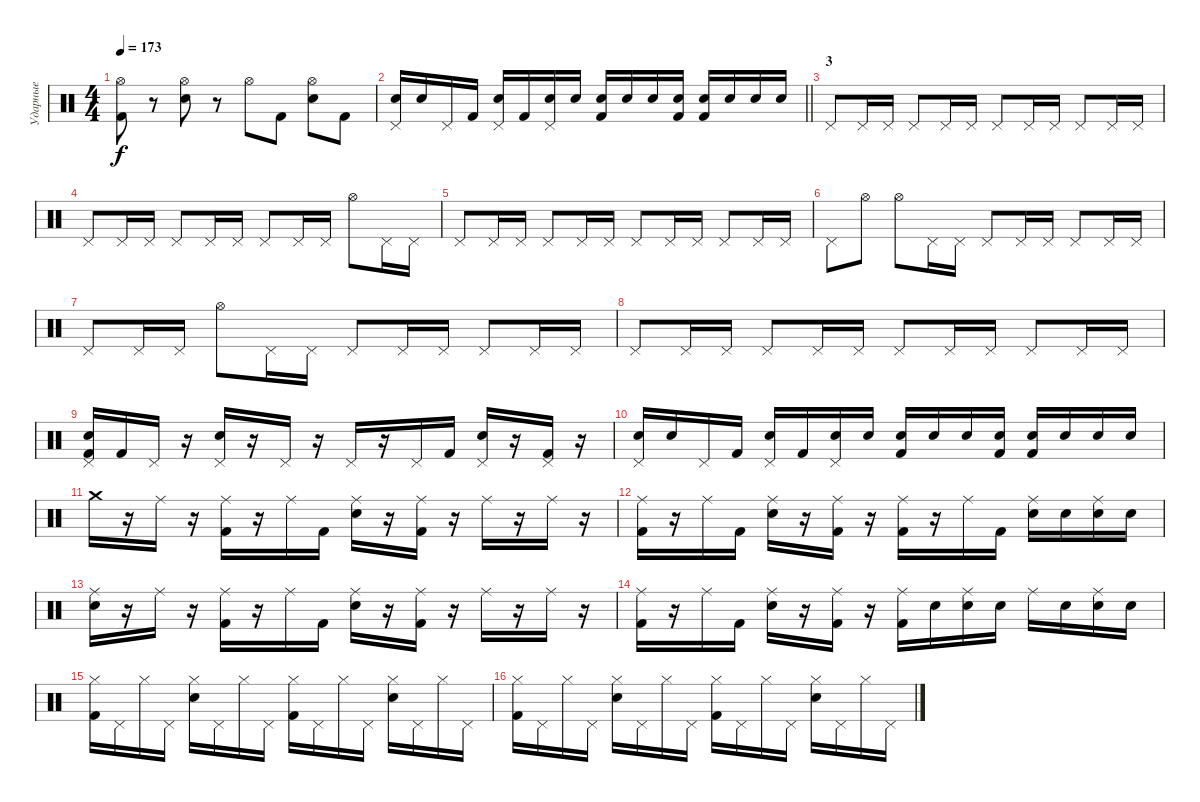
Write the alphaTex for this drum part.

\track ("Ударные" "Ударные") {instrument percussion}
\staff {score}
\articulation defaults
\ts (4 4)
\tempo 173
\clef neutral
\ks c
("Hi-Hat (open)" "Kick (hit) 2").8{dy f} r.8 ("Hi-Hat (open)" "Snare (hit) 2").8 r.8 "Hi-Hat (open)".8 "Kick (hit) 2".8 ("Hi-Hat (open)" "Snare (hit) 2").8 "Kick (hit) 2".8 |
\barLineRight lightlight
("Pedal Hi-Hat (hit)" "Snare (hit) 2").16 "Snare (hit) 2".16 "Pedal Hi-Hat (hit)".16 "Kick (hit) 2".16 ("Pedal Hi-Hat (hit)" "Snare (hit) 2").16 "Kick (hit) 2".16 ("Pedal Hi-Hat (hit)" "Snare (hit) 2").16 "Snare (hit) 2".16 ("Snare (hit) 2" "Kick (hit) 2").16 "Snare (hit) 2".16 "Snare (hit) 2".16 ("Snare (hit) 2" "Kick (hit) 2").16 ("Snare (hit) 2" "Kick (hit) 2").16 "Snare (hit) 2".16 "Snare (hit) 2".16 "Snare (hit) 2".16 |
\section ("" "3")
"Pedal Hi-Hat (hit)".8 "Pedal Hi-Hat (hit)".16 "Pedal Hi-Hat (hit)".16 "Pedal Hi-Hat (hit)".8 "Pedal Hi-Hat (hit)".16 "Pedal Hi-Hat (hit)".16 "Pedal Hi-Hat (hit)".8 "Pedal Hi-Hat (hit)".16 "Pedal Hi-Hat (hit)".16 "Pedal Hi-Hat (hit)".8 "Pedal Hi-Hat (hit)".16 "Pedal Hi-Hat (hit)".16 |
"Pedal Hi-Hat (hit)".8 "Pedal Hi-Hat (hit)".16 "Pedal Hi-Hat (hit)".16 "Pedal Hi-Hat (hit)".8 "Pedal Hi-Hat (hit)".16 "Pedal Hi-Hat (hit)".16 "Pedal Hi-Hat (hit)".8 "Pedal Hi-Hat (hit)".16 "Pedal Hi-Hat (hit)".16 "Hi-Hat (open)".8 "Pedal Hi-Hat (hit)".16 "Pedal Hi-Hat (hit)".16 |
"Pedal Hi-Hat (hit)".8 "Pedal Hi-Hat (hit)".16 "Pedal Hi-Hat (hit)".16 "Pedal Hi-Hat (hit)".8 "Pedal Hi-Hat (hit)".16 "Pedal Hi-Hat (hit)".16 "Pedal Hi-Hat (hit)".8 "Pedal Hi-Hat (hit)".16 "Pedal Hi-Hat (hit)".16 "Pedal Hi-Hat (hit)".8 "Pedal Hi-Hat (hit)".16 "Pedal Hi-Hat (hit)".16 |
"Pedal Hi-Hat (hit)".8 "Hi-Hat (open)".8 "Hi-Hat (open)".8 "Pedal Hi-Hat (hit)".16 "Pedal Hi-Hat (hit)".16 "Pedal Hi-Hat (hit)".8 "Pedal Hi-Hat (hit)".16 "Pedal Hi-Hat (hit)".16 "Pedal Hi-Hat (hit)".8 "Pedal Hi-Hat (hit)".16 "Pedal Hi-Hat (hit)".16 |
"Pedal Hi-Hat (hit)".8 "Pedal Hi-Hat (hit)".16 "Pedal Hi-Hat (hit)".16 "Hi-Hat (open)".8 "Pedal Hi-Hat (hit)".16 "Pedal Hi-Hat (hit)".16 "Pedal Hi-Hat (hit)".8 "Pedal Hi-Hat (hit)".16 "Pedal Hi-Hat (hit)".16 "Pedal Hi-Hat (hit)".8 "Pedal Hi-Hat (hit)".16 "Pedal Hi-Hat (hit)".16 |
"Pedal Hi-Hat (hit)".8 "Pedal Hi-Hat (hit)".16 "Pedal Hi-Hat (hit)".16 "Pedal Hi-Hat (hit)".8 "Pedal Hi-Hat (hit)".16 "Pedal Hi-Hat (hit)".16 "Pedal Hi-Hat (hit)".8 "Pedal Hi-Hat (hit)".16 "Pedal Hi-Hat (hit)".16 "Pedal Hi-Hat (hit)".8 "Pedal Hi-Hat (hit)".16 "Pedal Hi-Hat (hit)".16 |
("Pedal Hi-Hat (hit)" "Snare (hit) 2" "Kick (hit) 2").16 "Kick (hit) 2".16 "Pedal Hi-Hat (hit)".16 r.16 ("Pedal Hi-Hat (hit)" "Snare (hit) 2").16 r.16 "Pedal Hi-Hat (hit)".16 r.16 "Pedal Hi-Hat (hit)".16 r.16 "Pedal Hi-Hat (hit)".16 "Kick (hit) 2".16 ("Pedal Hi-Hat (hit)" "Snare (hit) 2").16 r.16 ("Pedal Hi-Hat (hit)" "Kick (hit) 2").16 r.16 |
("Pedal Hi-Hat (hit)" "Snare (hit) 2").16 "Snare (hit) 2".16 "Pedal Hi-Hat (hit)".16 "Kick (hit) 2".16 ("Pedal Hi-Hat (hit)" "Snare (hit) 2").16 "Kick (hit) 2".16 ("Pedal Hi-Hat (hit)" "Snare (hit) 2").16 "Snare (hit) 2".16 ("Snare (hit) 2" "Kick (hit) 2").16 "Snare (hit) 2".16 "Snare (hit) 2".16 ("Snare (hit) 2" "Kick (hit) 2").16 ("Snare (hit) 2" "Kick (hit) 2").16 "Snare (hit) 2".16 "Snare (hit) 2".16 "Snare (hit) 2".16 |
"Crash medium (hit)".16 r.16 "Ride (middle)".16 r.16 ("Ride (middle)" "Kick (hit) 2").16 r.16 "Ride (middle)".16 "Kick (hit) 2".16 ("Ride (middle)" "Snare (hit) 2").16 r.16 ("Ride (middle)" "Kick (hit) 2").16 r.16 "Ride (middle)".16 r.16 "Ride (middle)".16 r.16 |
("Ride (middle)" "Kick (hit) 2").16 r.16 "Ride (middle)".16 "Kick (hit) 2".16 ("Ride (middle)" "Snare (hit) 2").16 r.16 ("Ride (middle)" "Kick (hit) 2").16 r.16 ("Ride (middle)" "Kick (hit) 2").16 r.16 "Ride (middle)".16 "Kick (hit) 2".16 ("Ride (middle)" "Snare (hit) 2").16 "Snare (hit) 2".16 ("Ride (middle)" "Snare (hit) 2").16 "Snare (hit) 2".16 |
("Ride (middle)" "Snare (hit) 2").16 r.16 "Ride (middle)".16 r.16 ("Ride (middle)" "Kick (hit) 2").16 r.16 "Ride (middle)".16 "Kick (hit) 2".16 ("Ride (middle)" "Snare (hit) 2").16 r.16 ("Ride (middle)" "Kick (hit) 2").16 r.16 "Ride (middle)".16 r.16 "Ride (middle)".16 r.16 |
("Ride (middle)" "Kick (hit) 2").16 r.16 "Ride (middle)".16 "Kick (hit) 2".16 ("Ride (middle)" "Snare (hit) 2").16 r.16 ("Ride (middle)" "Kick (hit) 2").16 r.16 ("Ride (middle)" "Kick (hit) 2").16 "Snare (hit) 2".16 ("Ride (middle)" "Snare (hit) 2").16 "Snare (hit) 2".16 "Ride (middle)".16 "Snare (hit) 2".16 ("Ride (middle)" "Snare (hit) 2").16 "Snare (hit) 2".16 |
("Hi-Hat (closed)" "Kick (hit) 2").16 "Pedal Hi-Hat (hit)".16 "Hi-Hat (closed)".16 "Pedal Hi-Hat (hit)".16 ("Hi-Hat (closed)" "Snare (hit) 2").16 "Pedal Hi-Hat (hit)".16 "Hi-Hat (closed)".16 "Pedal Hi-Hat (hit)".16 ("Hi-Hat (closed)" "Kick (hit) 2").16 "Pedal Hi-Hat (hit)".16 "Hi-Hat (closed)".16 "Pedal Hi-Hat (hit)".16 ("Hi-Hat (closed)" "Snare (hit) 2").16 "Pedal Hi-Hat (hit)".16 "Hi-Hat (closed)".16 "Pedal Hi-Hat (hit)".16 |
("Hi-Hat (closed)" "Kick (hit) 2").16 "Pedal Hi-Hat (hit)".16 "Hi-Hat (closed)".16 "Pedal Hi-Hat (hit)".16 ("Hi-Hat (closed)" "Snare (hit) 2").16 "Pedal Hi-Hat (hit)".16 "Hi-Hat (closed)".16 "Pedal Hi-Hat (hit)".16 ("Hi-Hat (closed)" "Kick (hit) 2").16 "Pedal Hi-Hat (hit)".16 "Hi-Hat (closed)".16 "Pedal Hi-Hat (hit)".16 ("Hi-Hat (closed)" "Snare (hit) 2").16 "Pedal Hi-Hat (hit)".16 "Hi-Hat (closed)".16 "Pedal Hi-Hat (hit)".16
